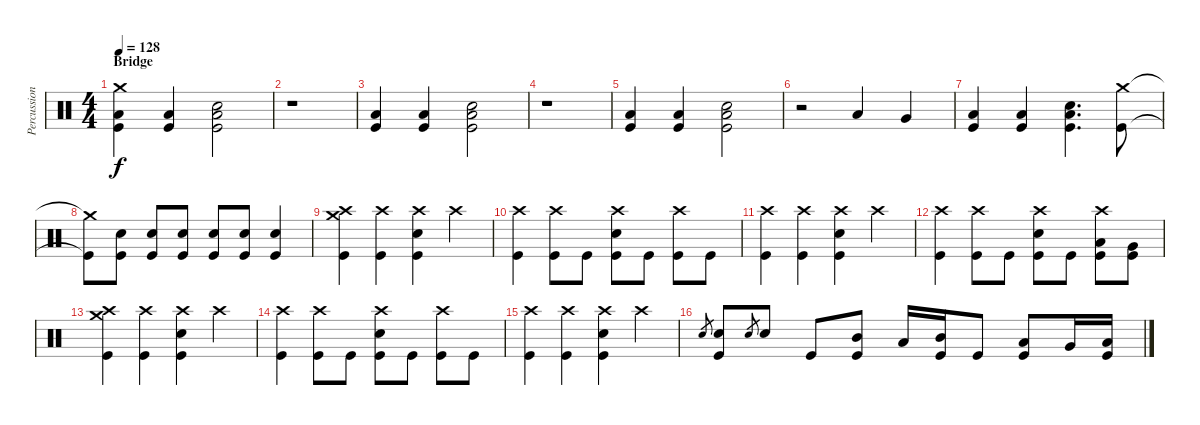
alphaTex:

\track ("Percussion" "Percussion") {instrument percussion}
\staff {score}
\articulation defaults
\ts (4 4)
\section ("" "Bridge")
\tempo 128
\clef neutral
\ks c
("Crash medium (hit)" "Low Floor Tom (hit)" "Kick (hit)").4{dy f} ("Low Floor Tom (hit)" "Kick (hit)").4 ("Electric Snare (hit)" "Low Floor Tom (hit)" "Kick (hit)").2 |
r.1 |
("Low Floor Tom (hit)" "Kick (hit)").4 ("Low Floor Tom (hit)" "Kick (hit)").4 ("Electric Snare (hit)" "Low Floor Tom (hit)" "Kick (hit)").2 |
r.1 |
("Low Floor Tom (hit)" "Kick (hit)").4 ("Low Floor Tom (hit)" "Kick (hit)").4 ("Electric Snare (hit)" "Low Floor Tom (hit)" "Kick (hit)").2 |
r.2 "Low Tom (hit)".4 "Very Low Tom (hit)".4 |
("Low Floor Tom (hit)" "Kick (hit)").4 ("Low Floor Tom (hit)" "Kick (hit)").4 ("Electric Snare (hit)" "Low Floor Tom (hit)" "Kick (hit)").4{d} ("Crash medium (hit)" "Kick (hit)").8 |
("Crash medium (hit)"{t} "Kick (hit)"{t}).8 ("Electric Snare (hit)" "Kick (hit)").8 ("Electric Snare (hit)" "Kick (hit)").8 ("Electric Snare (hit)" "Kick (hit)").8 ("Electric Snare (hit)" "Kick (hit)").8 ("Electric Snare (hit)" "Kick (hit)").8 ("Electric Snare (hit)" "Kick (hit)").4 |
("Crash high (hit)" "Crash medium (hit)" "Kick (hit)").4 ("Crash high (hit)" "Kick (hit)").4 ("Crash high (hit)" "Electric Snare (hit)" "Kick (hit)").4 "Crash high (hit)".4 |
("Crash high (hit)" "Kick (hit)").4 ("Crash high (hit)" "Kick (hit)").8 "Kick (hit)".8 ("Crash high (hit)" "Electric Snare (hit)" "Kick (hit)").8 "Kick (hit)".8 ("Crash high (hit)" "Kick (hit)").8 "Kick (hit)".8 |
("Crash high (hit)" "Kick (hit)").4 ("Crash high (hit)" "Kick (hit)").4 ("Crash high (hit)" "Electric Snare (hit)" "Kick (hit)").4 "Crash high (hit)".4 |
("Crash high (hit)" "Kick (hit)").4 ("Crash high (hit)" "Kick (hit)").8 "Kick (hit)".8 ("Crash high (hit)" "Electric Snare (hit)" "Kick (hit)").8 "Kick (hit)".8 ("Crash high (hit)" "Low Floor Tom (hit)" "Kick (hit)").8 ("Very Low Tom (hit)" "Kick (hit)").8 |
("Crash high (hit)" "Crash medium (hit)" "Kick (hit)").4 ("Crash high (hit)" "Kick (hit)").4 ("Crash high (hit)" "Electric Snare (hit)" "Kick (hit)").4 "Crash high (hit)".4 |
("Crash high (hit)" "Kick (hit)").4 ("Crash high (hit)" "Kick (hit)").8 "Kick (hit)".8 ("Crash high (hit)" "Electric Snare (hit)" "Kick (hit)").8 "Kick (hit)".8 ("Crash high (hit)" "Kick (hit)").8 "Kick (hit)".8 |
("Crash high (hit)" "Kick (hit)").4 ("Crash high (hit)" "Kick (hit)").4 ("Crash high (hit)" "Electric Snare (hit)" "Kick (hit)").4 "Crash high (hit)".4 |
"Electric Snare (hit)".8{gr} ("Electric Snare (hit)" "Kick (hit)").8 "Electric Snare (hit)".8{gr} "Electric Snare (hit)".8 "Kick (hit)".8 ("Mid Tom (hit)" "Kick (hit)").8 "Low Tom (hit)".16 ("Mid Tom (hit)" "Kick (hit)").16 "Kick (hit)".8 ("Low Tom (hit)" "Kick (hit)").8 "Very Low Tom (hit)".16 ("Low Tom (hit)" "Kick (hit)").16
